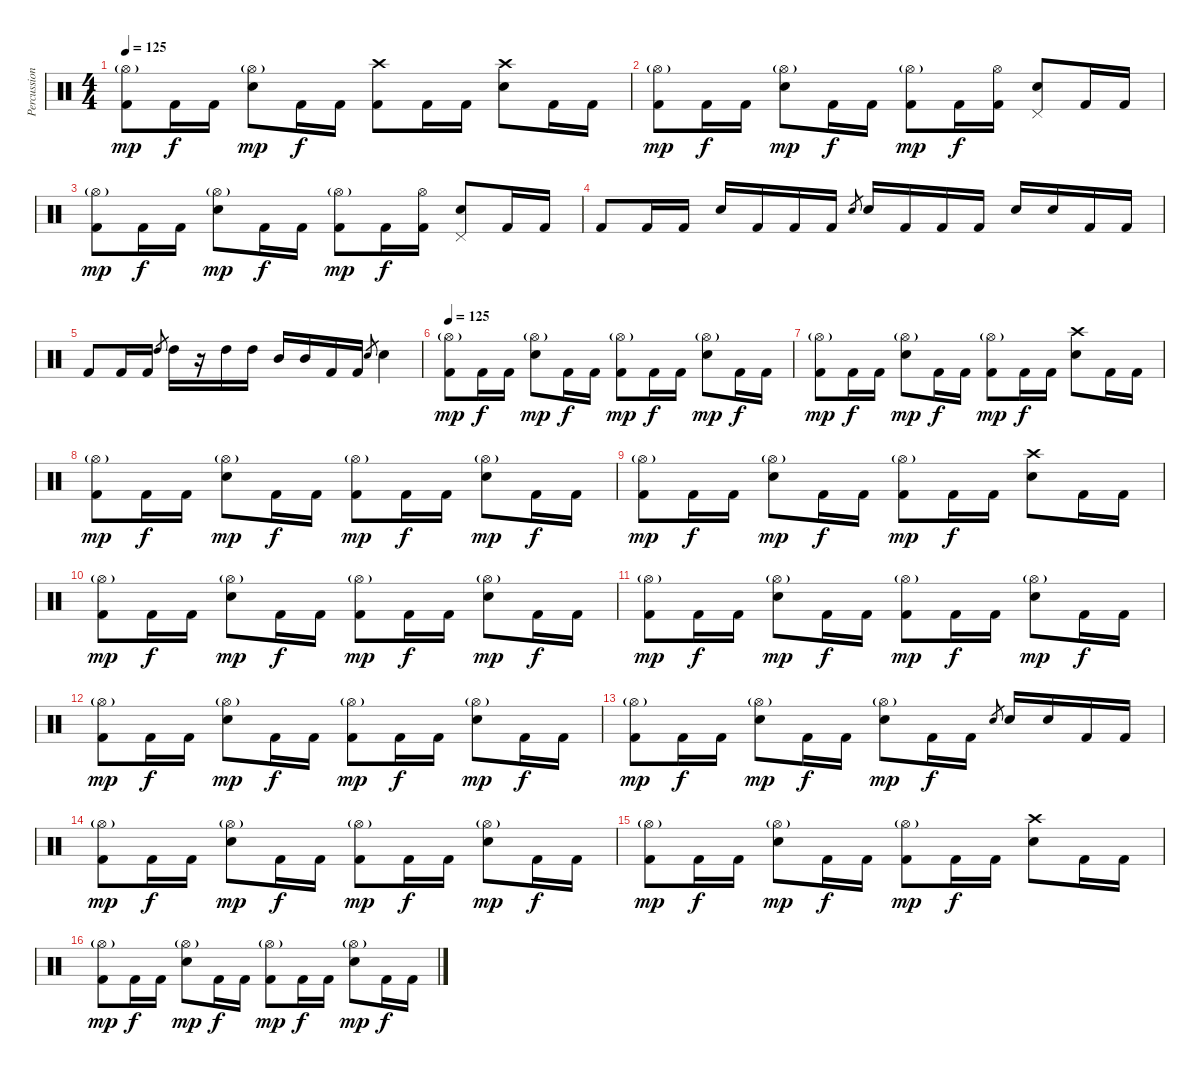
\track ("Percussion" "Percussion") {instrument percussion}
\staff {score}
\articulation defaults
\ts (4 4)
\tempo 125
\clef neutral
\ks c
("Hi-Hat (open)"{g} "Kick (hit) 2").8{dy mp} "Kick (hit) 2".16{dy f} "Kick (hit) 2".16 ("Hi-Hat (open)"{g} "Electric Snare (hit)").8{dy mp} "Kick (hit) 2".16{dy f} "Kick (hit) 2".16 ("Crash high (hit)" "Kick (hit) 2").8 "Kick (hit) 2".16 "Kick (hit) 2".16 ("Crash high (hit)" "Electric Snare (hit)").8 "Kick (hit) 2".16 "Kick (hit) 2".16 |
("Hi-Hat (open)"{g} "Kick (hit) 2").8{dy mp} "Kick (hit) 2".16{dy f} "Kick (hit) 2".16 ("Hi-Hat (open)"{g} "Electric Snare (hit)").8{dy mp} "Kick (hit) 2".16{dy f} "Kick (hit) 2".16 ("Hi-Hat (open)"{g} "Kick (hit) 2").8{dy mp} "Kick (hit) 2".16{dy f} ("Hi-Hat (open)" "Kick (hit) 2").16 ("Pedal Hi-Hat (hit)" "Electric Snare (hit)").8 "Kick (hit) 2".16 "Kick (hit) 2".16 |
("Hi-Hat (open)"{g} "Kick (hit) 2").8{dy mp} "Kick (hit) 2".16{dy f} "Kick (hit) 2".16 ("Hi-Hat (open)"{g} "Electric Snare (hit)").8{dy mp} "Kick (hit) 2".16{dy f} "Kick (hit) 2".16 ("Hi-Hat (open)"{g} "Kick (hit) 2").8{dy mp} "Kick (hit) 2".16{dy f} ("Hi-Hat (open)" "Kick (hit) 2").16 ("Pedal Hi-Hat (hit)" "Electric Snare (hit)").8 "Kick (hit) 2".16 "Kick (hit) 2".16 |
"Kick (hit) 2".8 "Kick (hit) 2".16 "Kick (hit) 2".16 "Electric Snare (hit)".16 "Kick (hit) 2".16 "Kick (hit) 2".16 "Kick (hit) 2".16 "Electric Snare (hit)".8{gr} "Electric Snare (hit)".16 "Kick (hit) 2".16 "Kick (hit) 2".16 "Kick (hit) 2".16 "Electric Snare (hit)".16 "Electric Snare (hit)".16 "Kick (hit) 2".16 "Kick (hit) 2".16 |
"Kick (hit) 2".8 "Kick (hit) 2".16 "Kick (hit) 2".16 "High Tom (hit)".8{gr} "High Tom (hit)".16 r.16 "High Tom (hit)".16 "High Tom (hit)".16 "Mid Tom (hit)".16 "Mid Tom (hit)".16 "Kick (hit) 2".16 "Kick (hit) 2".16 "Electric Snare (hit)".8{gr} "Electric Snare (hit)".4 |
\tempo 125
("Hi-Hat (open)"{g} "Kick (hit) 2").8{dy mp} "Kick (hit) 2".16{dy f} "Kick (hit) 2".16 ("Hi-Hat (open)"{g} "Electric Snare (hit)").8{dy mp} "Kick (hit) 2".16{dy f} "Kick (hit) 2".16 ("Hi-Hat (open)"{g} "Kick (hit) 2").8{dy mp} "Kick (hit) 2".16{dy f} "Kick (hit) 2".16 ("Hi-Hat (open)"{g} "Electric Snare (hit)").8{dy mp} "Kick (hit) 2".16{dy f} "Kick (hit) 2".16 |
("Hi-Hat (open)"{g} "Kick (hit) 2").8{dy mp} "Kick (hit) 2".16{dy f} "Kick (hit) 2".16 ("Hi-Hat (open)"{g} "Electric Snare (hit)").8{dy mp} "Kick (hit) 2".16{dy f} "Kick (hit) 2".16 ("Hi-Hat (open)"{g} "Kick (hit) 2").8{dy mp} "Kick (hit) 2".16{dy f} "Kick (hit) 2".16 ("Crash high (hit)" "Electric Snare (hit)").8 "Kick (hit) 2".16 "Kick (hit) 2".16 |
("Hi-Hat (open)"{g} "Kick (hit) 2").8{dy mp} "Kick (hit) 2".16{dy f} "Kick (hit) 2".16 ("Hi-Hat (open)"{g} "Electric Snare (hit)").8{dy mp} "Kick (hit) 2".16{dy f} "Kick (hit) 2".16 ("Hi-Hat (open)"{g} "Kick (hit) 2").8{dy mp} "Kick (hit) 2".16{dy f} "Kick (hit) 2".16 ("Hi-Hat (open)"{g} "Electric Snare (hit)").8{dy mp} "Kick (hit) 2".16{dy f} "Kick (hit) 2".16 |
("Hi-Hat (open)"{g} "Kick (hit) 2").8{dy mp} "Kick (hit) 2".16{dy f} "Kick (hit) 2".16 ("Hi-Hat (open)"{g} "Electric Snare (hit)").8{dy mp} "Kick (hit) 2".16{dy f} "Kick (hit) 2".16 ("Hi-Hat (open)"{g} "Kick (hit) 2").8{dy mp} "Kick (hit) 2".16{dy f} "Kick (hit) 2".16 ("Crash high (hit)" "Electric Snare (hit)").8 "Kick (hit) 2".16 "Kick (hit) 2".16 |
("Hi-Hat (open)"{g} "Kick (hit) 2").8{dy mp} "Kick (hit) 2".16{dy f} "Kick (hit) 2".16 ("Hi-Hat (open)"{g} "Electric Snare (hit)").8{dy mp} "Kick (hit) 2".16{dy f} "Kick (hit) 2".16 ("Hi-Hat (open)"{g} "Kick (hit) 2").8{dy mp} "Kick (hit) 2".16{dy f} "Kick (hit) 2".16 ("Hi-Hat (open)"{g} "Electric Snare (hit)").8{dy mp} "Kick (hit) 2".16{dy f} "Kick (hit) 2".16 |
("Hi-Hat (open)"{g} "Kick (hit) 2").8{dy mp} "Kick (hit) 2".16{dy f} "Kick (hit) 2".16 ("Hi-Hat (open)"{g} "Electric Snare (hit)").8{dy mp} "Kick (hit) 2".16{dy f} "Kick (hit) 2".16 ("Hi-Hat (open)"{g} "Kick (hit) 2").8{dy mp} "Kick (hit) 2".16{dy f} "Kick (hit) 2".16 ("Hi-Hat (open)"{g} "Electric Snare (hit)").8{dy mp} "Kick (hit) 2".16{dy f} "Kick (hit) 2".16 |
("Hi-Hat (open)"{g} "Kick (hit) 2").8{dy mp} "Kick (hit) 2".16{dy f} "Kick (hit) 2".16 ("Hi-Hat (open)"{g} "Electric Snare (hit)").8{dy mp} "Kick (hit) 2".16{dy f} "Kick (hit) 2".16 ("Hi-Hat (open)"{g} "Kick (hit) 2").8{dy mp} "Kick (hit) 2".16{dy f} "Kick (hit) 2".16 ("Hi-Hat (open)"{g} "Electric Snare (hit)").8{dy mp} "Kick (hit) 2".16{dy f} "Kick (hit) 2".16 |
("Hi-Hat (open)"{g} "Kick (hit) 2").8{dy mp} "Kick (hit) 2".16{dy f} "Kick (hit) 2".16 ("Hi-Hat (open)"{g} "Electric Snare (hit)").8{dy mp} "Kick (hit) 2".16{dy f} "Kick (hit) 2".16 ("Hi-Hat (open)"{g} "Electric Snare (hit)").8{dy mp} "Kick (hit) 2".16{dy f} "Kick (hit) 2".16 "Electric Snare (hit)".8{gr} "Electric Snare (hit)".16 "Electric Snare (hit)".16 "Kick (hit) 2".16 "Kick (hit) 2".16 |
("Hi-Hat (open)"{g} "Kick (hit) 2").8{dy mp} "Kick (hit) 2".16{dy f} "Kick (hit) 2".16 ("Hi-Hat (open)"{g} "Electric Snare (hit)").8{dy mp} "Kick (hit) 2".16{dy f} "Kick (hit) 2".16 ("Hi-Hat (open)"{g} "Kick (hit) 2").8{dy mp} "Kick (hit) 2".16{dy f} "Kick (hit) 2".16 ("Hi-Hat (open)"{g} "Electric Snare (hit)").8{dy mp} "Kick (hit) 2".16{dy f} "Kick (hit) 2".16 |
("Hi-Hat (open)"{g} "Kick (hit) 2").8{dy mp} "Kick (hit) 2".16{dy f} "Kick (hit) 2".16 ("Hi-Hat (open)"{g} "Electric Snare (hit)").8{dy mp} "Kick (hit) 2".16{dy f} "Kick (hit) 2".16 ("Hi-Hat (open)"{g} "Kick (hit) 2").8{dy mp} "Kick (hit) 2".16{dy f} "Kick (hit) 2".16 ("Crash high (hit)" "Electric Snare (hit)").8 "Kick (hit) 2".16 "Kick (hit) 2".16 |
("Hi-Hat (open)"{g} "Kick (hit) 2").8{dy mp} "Kick (hit) 2".16{dy f} "Kick (hit) 2".16 ("Hi-Hat (open)"{g} "Electric Snare (hit)").8{dy mp} "Kick (hit) 2".16{dy f} "Kick (hit) 2".16 ("Hi-Hat (open)"{g} "Kick (hit) 2").8{dy mp} "Kick (hit) 2".16{dy f} "Kick (hit) 2".16 ("Hi-Hat (open)"{g} "Electric Snare (hit)").8{dy mp} "Kick (hit) 2".16{dy f} "Kick (hit) 2".16
